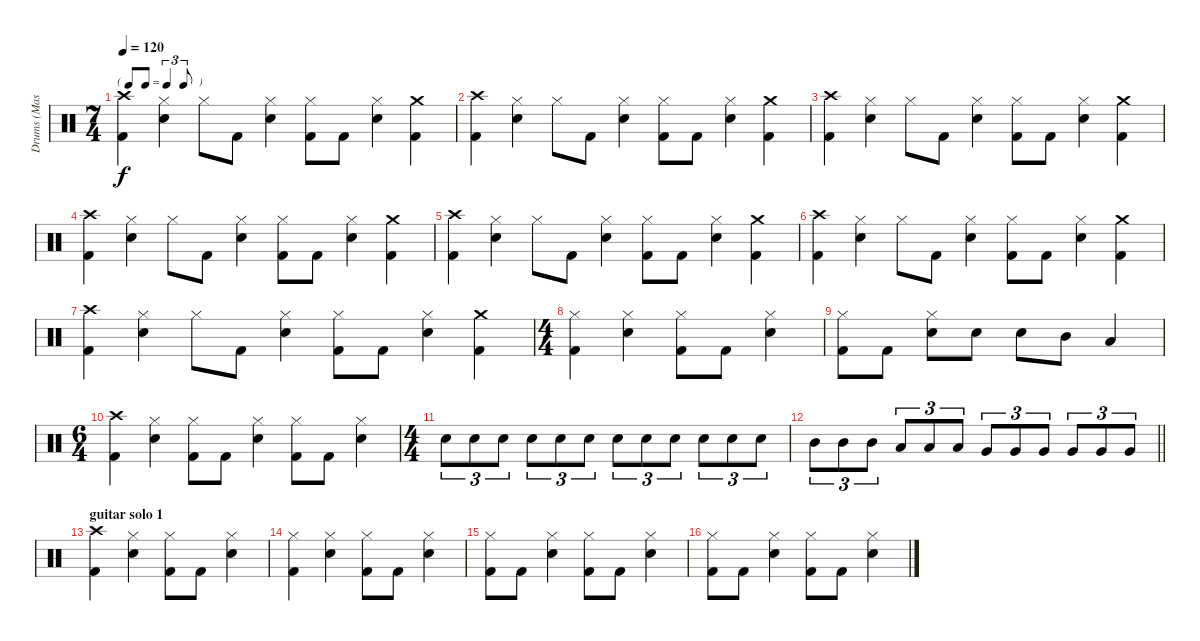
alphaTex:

\track ("Drums (Mason)" "Drums (Mas") {instrument percussion}
\staff {score}
\articulation defaults
\ts (7 4)
\tf triplet8th
\tempo 120
\clef neutral
\ks c
("Crash high (hit)" "Kick (hit) 2").4{dy f} ("Hi-Hat (closed)" "Electric Snare (hit)").4 "Hi-Hat (closed)".8 "Kick (hit) 2".8 ("Hi-Hat (closed)" "Electric Snare (hit)").4 ("Hi-Hat (closed)" "Kick (hit) 2").8 "Kick (hit) 2".8 ("Hi-Hat (closed)" "Electric Snare (hit)").4 ("Crash medium (hit)" "Kick (hit) 2").4 |
("Crash high (hit)" "Kick (hit) 2").4 ("Hi-Hat (closed)" "Electric Snare (hit)").4 "Hi-Hat (closed)".8 "Kick (hit) 2".8 ("Hi-Hat (closed)" "Electric Snare (hit)").4 ("Hi-Hat (closed)" "Kick (hit) 2").8 "Kick (hit) 2".8 ("Hi-Hat (closed)" "Electric Snare (hit)").4 ("Crash medium (hit)" "Kick (hit) 2").4 |
("Crash high (hit)" "Kick (hit) 2").4 ("Hi-Hat (closed)" "Electric Snare (hit)").4 "Hi-Hat (closed)".8 "Kick (hit) 2".8 ("Hi-Hat (closed)" "Electric Snare (hit)").4 ("Hi-Hat (closed)" "Kick (hit) 2").8 "Kick (hit) 2".8 ("Hi-Hat (closed)" "Electric Snare (hit)").4 ("Crash medium (hit)" "Kick (hit) 2").4 |
("Crash high (hit)" "Kick (hit) 2").4 ("Hi-Hat (closed)" "Electric Snare (hit)").4 "Hi-Hat (closed)".8 "Kick (hit) 2".8 ("Hi-Hat (closed)" "Electric Snare (hit)").4 ("Hi-Hat (closed)" "Kick (hit) 2").8 "Kick (hit) 2".8 ("Hi-Hat (closed)" "Electric Snare (hit)").4 ("Crash medium (hit)" "Kick (hit) 2").4 |
("Crash high (hit)" "Kick (hit) 2").4 ("Hi-Hat (closed)" "Electric Snare (hit)").4 "Hi-Hat (closed)".8 "Kick (hit) 2".8 ("Hi-Hat (closed)" "Electric Snare (hit)").4 ("Hi-Hat (closed)" "Kick (hit) 2").8 "Kick (hit) 2".8 ("Hi-Hat (closed)" "Electric Snare (hit)").4 ("Crash medium (hit)" "Kick (hit) 2").4 |
("Crash high (hit)" "Kick (hit) 2").4 ("Hi-Hat (closed)" "Electric Snare (hit)").4 "Hi-Hat (closed)".8 "Kick (hit) 2".8 ("Hi-Hat (closed)" "Electric Snare (hit)").4 ("Hi-Hat (closed)" "Kick (hit) 2").8 "Kick (hit) 2".8 ("Hi-Hat (closed)" "Electric Snare (hit)").4 ("Crash medium (hit)" "Kick (hit) 2").4 |
("Crash high (hit)" "Kick (hit) 2").4 ("Hi-Hat (closed)" "Electric Snare (hit)").4 "Hi-Hat (closed)".8 "Kick (hit) 2".8 ("Hi-Hat (closed)" "Electric Snare (hit)").4 ("Hi-Hat (closed)" "Kick (hit) 2").8 "Kick (hit) 2".8 ("Hi-Hat (closed)" "Electric Snare (hit)").4 ("Crash medium (hit)" "Kick (hit) 2").4 |
\ts (4 4)
("Hi-Hat (closed)" "Kick (hit) 2").4 ("Hi-Hat (closed)" "Electric Snare (hit)").4 ("Hi-Hat (closed)" "Kick (hit) 2").8 "Kick (hit) 2".8 ("Hi-Hat (closed)" "Electric Snare (hit)").4 |
("Hi-Hat (closed)" "Kick (hit) 2").8 "Kick (hit) 2".8 ("Hi-Hat (closed)" "Electric Snare (hit)").8 "Electric Snare (hit)".8 "Electric Snare (hit)".8 "Mid Tom (hit)".8 "Low Tom (hit)".4 |
\ts (6 4)
("Crash high (hit)" "Kick (hit) 2").4 ("Hi-Hat (closed)" "Electric Snare (hit)").4 ("Hi-Hat (closed)" "Kick (hit) 2").8 "Kick (hit) 2".8 ("Hi-Hat (closed)" "Electric Snare (hit)").4 ("Hi-Hat (closed)" "Kick (hit) 2").8 "Kick (hit) 2".8 ("Hi-Hat (closed)" "Electric Snare (hit)").4 |
\ts (4 4)
"Electric Snare (hit)".8{tu (3 2)} "Electric Snare (hit)".8{tu (3 2)} "Electric Snare (hit)".8{tu (3 2)} "Electric Snare (hit)".8{tu (3 2)} "Electric Snare (hit)".8{tu (3 2)} "Electric Snare (hit)".8{tu (3 2)} "Electric Snare (hit)".8{tu (3 2)} "Electric Snare (hit)".8{tu (3 2)} "Electric Snare (hit)".8{tu (3 2)} "Electric Snare (hit)".8{tu (3 2)} "Electric Snare (hit)".8{tu (3 2)} "Electric Snare (hit)".8{tu (3 2)} |
\barLineRight lightlight "Mid Tom (hit)".8{tu (3 2)} "Mid Tom (hit)".8{tu (3 2)} "Mid Tom (hit)".8{tu (3 2)} "Low Tom (hit)".8{tu (3 2)} "Low Tom (hit)".8{tu (3 2)} "Low Tom (hit)".8{tu (3 2)} "Very Low Tom (hit)".8{tu (3 2)} "Very Low Tom (hit)".8{tu (3 2)} "Very Low Tom (hit)".8{tu (3 2)} "Very Low Tom (hit)".8{tu (3 2)} "Very Low Tom (hit)".8{tu (3 2)} "Very Low Tom (hit)".8{tu (3 2)}
|
\section ("" "guitar solo 1")
("Crash high (hit)" "Kick (hit) 2").4 ("Hi-Hat (closed)" "Electric Snare (hit)").4 ("Hi-Hat (closed)" "Kick (hit) 2").8 "Kick (hit) 2".8 ("Hi-Hat (closed)" "Electric Snare (hit)").4 |
("Hi-Hat (closed)" "Kick (hit) 2").4 ("Hi-Hat (closed)" "Electric Snare (hit)").4 ("Hi-Hat (closed)" "Kick (hit) 2").8 "Kick (hit) 2".8 ("Hi-Hat (closed)" "Electric Snare (hit)").4 |
("Hi-Hat (closed)" "Kick (hit) 2").8 "Kick (hit) 2".8 ("Hi-Hat (closed)" "Electric Snare (hit)").4 ("Hi-Hat (closed)" "Kick (hit) 2").8 "Kick (hit) 2".8 ("Hi-Hat (closed)" "Electric Snare (hit)").4 |
("Hi-Hat (closed)" "Kick (hit) 2").8 "Kick (hit) 2".8 ("Hi-Hat (closed)" "Electric Snare (hit)").4 ("Hi-Hat (closed)" "Kick (hit) 2").8 "Kick (hit) 2".8 ("Hi-Hat (closed)" "Electric Snare (hit)").4
